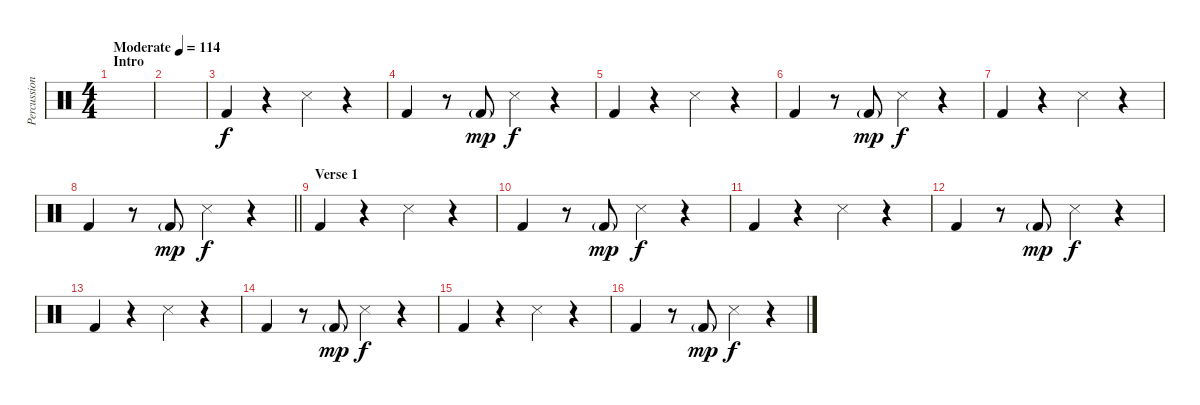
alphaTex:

\track ("Percussion" "Percussion") {instrument percussion}
\staff {score}
\articulation defaults
\ts (4 4)
\section ("" "Intro")
\tempo (114 "Moderate")
\clef neutral
\ks c
|
|
"Kick (hit) 2".4 r.4 "Snare (side stick) 3".4 r.4 |
"Kick (hit) 2".4 r.8 "Kick (hit) 2"{g}.8{dy mp} "Snare (side stick) 3".4{dy f} r.4 |
"Kick (hit) 2".4 r.4 "Snare (side stick) 3".4 r.4 |
"Kick (hit) 2".4 r.8 "Kick (hit) 2"{g}.8{dy mp} "Snare (side stick) 3".4{dy f} r.4 |
"Kick (hit) 2".4 r.4 "Snare (side stick) 3".4 r.4 |
\barLineRight lightlight "Kick (hit) 2".4
r.8 "Kick (hit) 2"{g}.8{dy mp} "Snare (side stick) 3".4{dy f} r.4 |
\section ("" "Verse 1")
"Kick (hit) 2".4 r.4 "Snare (side stick) 3".4 r.4 |
"Kick (hit) 2".4 r.8 "Kick (hit) 2"{g}.8{dy mp} "Snare (side stick) 3".4{dy f} r.4 |
"Kick (hit) 2".4 r.4 "Snare (side stick) 3".4 r.4 |
"Kick (hit) 2".4 r.8 "Kick (hit) 2"{g}.8{dy mp} "Snare (side stick) 3".4{dy f} r.4 |
"Kick (hit) 2".4 r.4 "Snare (side stick) 3".4 r.4 |
"Kick (hit) 2".4 r.8 "Kick (hit) 2"{g}.8{dy mp} "Snare (side stick) 3".4{dy f} r.4 |
"Kick (hit) 2".4 r.4 "Snare (side stick) 3".4 r.4 |
"Kick (hit) 2".4 r.8 "Kick (hit) 2"{g}.8{dy mp} "Snare (side stick) 3".4{dy f} r.4
